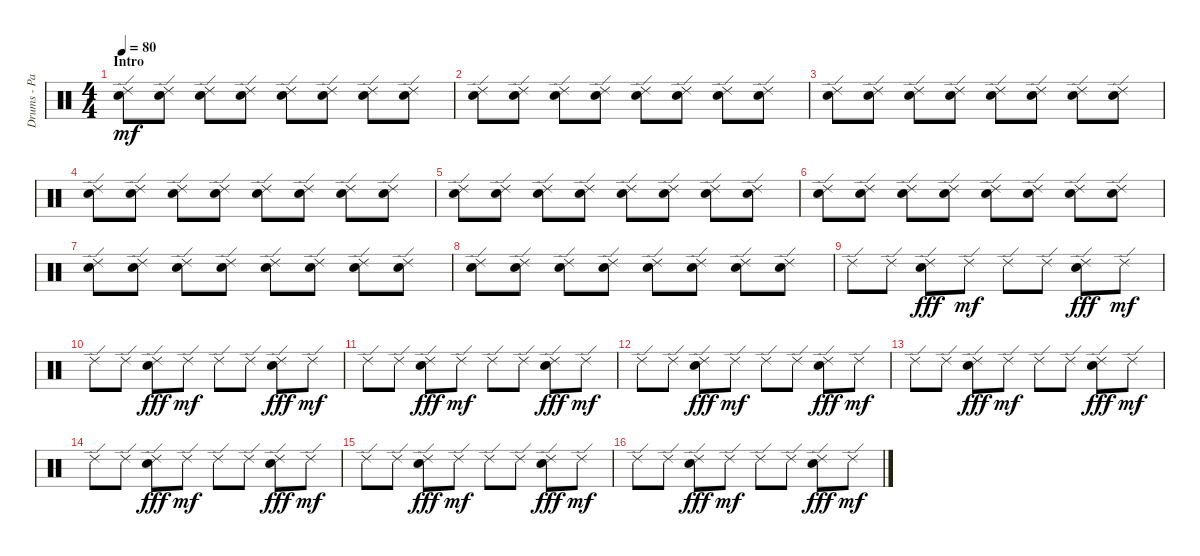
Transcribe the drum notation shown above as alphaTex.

\track ("Drums - Paice" "Drums - Pa") {instrument percussion}
\staff {score}
\articulation defaults
\ts (4 4)
\section ("" "Intro")
\tempo 80
\clef neutral
\ks c
("Ride (edge) 2" "Electric Snare (hit)").8{dy mf} ("Ride (edge) 2" "Electric Snare (hit)").8 ("Ride (edge) 2" "Electric Snare (hit)").8 ("Ride (edge) 2" "Electric Snare (hit)").8 ("Ride (edge) 2" "Electric Snare (hit)").8 ("Ride (edge) 2" "Electric Snare (hit)").8 ("Ride (edge) 2" "Electric Snare (hit)").8 ("Ride (edge) 2" "Electric Snare (hit)").8 |
("Ride (edge) 2" "Electric Snare (hit)").8 ("Ride (edge) 2" "Electric Snare (hit)").8 ("Ride (edge) 2" "Electric Snare (hit)").8 ("Ride (edge) 2" "Electric Snare (hit)").8 ("Ride (edge) 2" "Electric Snare (hit)").8 ("Ride (edge) 2" "Electric Snare (hit)").8 ("Ride (edge) 2" "Electric Snare (hit)").8 ("Ride (edge) 2" "Electric Snare (hit)").8 |
("Ride (edge) 2" "Electric Snare (hit)").8 ("Ride (edge) 2" "Electric Snare (hit)").8 ("Ride (edge) 2" "Electric Snare (hit)").8 ("Ride (edge) 2" "Electric Snare (hit)").8 ("Ride (edge) 2" "Electric Snare (hit)").8 ("Ride (edge) 2" "Electric Snare (hit)").8 ("Ride (edge) 2" "Electric Snare (hit)").8 ("Ride (edge) 2" "Electric Snare (hit)").8 |
("Ride (edge) 2" "Electric Snare (hit)").8 ("Ride (edge) 2" "Electric Snare (hit)").8 ("Ride (edge) 2" "Electric Snare (hit)").8 ("Ride (edge) 2" "Electric Snare (hit)").8 ("Ride (edge) 2" "Electric Snare (hit)").8 ("Ride (edge) 2" "Electric Snare (hit)").8 ("Ride (edge) 2" "Electric Snare (hit)").8 ("Ride (edge) 2" "Electric Snare (hit)").8 |
("Ride (edge) 2" "Electric Snare (hit)").8 ("Ride (edge) 2" "Electric Snare (hit)").8 ("Ride (edge) 2" "Electric Snare (hit)").8 ("Ride (edge) 2" "Electric Snare (hit)").8 ("Ride (edge) 2" "Electric Snare (hit)").8 ("Ride (edge) 2" "Electric Snare (hit)").8 ("Ride (edge) 2" "Electric Snare (hit)").8 ("Ride (edge) 2" "Electric Snare (hit)").8 |
("Ride (edge) 2" "Electric Snare (hit)").8 ("Ride (edge) 2" "Electric Snare (hit)").8 ("Ride (edge) 2" "Electric Snare (hit)").8 ("Ride (edge) 2" "Electric Snare (hit)").8 ("Ride (edge) 2" "Electric Snare (hit)").8 ("Ride (edge) 2" "Electric Snare (hit)").8 ("Ride (edge) 2" "Electric Snare (hit)").8 ("Ride (edge) 2" "Electric Snare (hit)").8 |
("Ride (edge) 2" "Electric Snare (hit)").8 ("Ride (edge) 2" "Electric Snare (hit)").8 ("Ride (edge) 2" "Electric Snare (hit)").8 ("Ride (edge) 2" "Electric Snare (hit)").8 ("Ride (edge) 2" "Electric Snare (hit)").8 ("Ride (edge) 2" "Electric Snare (hit)").8 ("Ride (edge) 2" "Electric Snare (hit)").8 ("Ride (edge) 2" "Electric Snare (hit)").8 |
("Ride (edge) 2" "Electric Snare (hit)").8 ("Ride (edge) 2" "Electric Snare (hit)").8 ("Ride (edge) 2" "Electric Snare (hit)").8 ("Ride (edge) 2" "Electric Snare (hit)").8 ("Ride (edge) 2" "Electric Snare (hit)").8 ("Ride (edge) 2" "Electric Snare (hit)").8 ("Ride (edge) 2" "Electric Snare (hit)").8 ("Ride (edge) 2" "Electric Snare (hit)").8 |
"Ride (edge) 2".8 "Ride (edge) 2".8 ("Ride (edge) 2" "Electric Snare (hit)").8{dy fff} "Ride (edge) 2".8{dy mf} "Ride (edge) 2".8 "Ride (edge) 2".8 ("Ride (edge) 2" "Electric Snare (hit)").8{dy fff} "Ride (edge) 2".8{dy mf} |
"Ride (edge) 2".8 "Ride (edge) 2".8 ("Ride (edge) 2" "Electric Snare (hit)").8{dy fff} "Ride (edge) 2".8{dy mf} "Ride (edge) 2".8 "Ride (edge) 2".8 ("Ride (edge) 2" "Electric Snare (hit)").8{dy fff} "Ride (edge) 2".8{dy mf} |
"Ride (edge) 2".8 "Ride (edge) 2".8 ("Ride (edge) 2" "Electric Snare (hit)").8{dy fff} "Ride (edge) 2".8{dy mf} "Ride (edge) 2".8 "Ride (edge) 2".8 ("Ride (edge) 2" "Electric Snare (hit)").8{dy fff} "Ride (edge) 2".8{dy mf} |
"Ride (edge) 2".8 "Ride (edge) 2".8 ("Ride (edge) 2" "Electric Snare (hit)").8{dy fff} "Ride (edge) 2".8{dy mf} "Ride (edge) 2".8 "Ride (edge) 2".8 ("Ride (edge) 2" "Electric Snare (hit)").8{dy fff} "Ride (edge) 2".8{dy mf} |
"Ride (edge) 2".8 "Ride (edge) 2".8 ("Ride (edge) 2" "Electric Snare (hit)").8{dy fff} "Ride (edge) 2".8{dy mf} "Ride (edge) 2".8 "Ride (edge) 2".8 ("Ride (edge) 2" "Electric Snare (hit)").8{dy fff} "Ride (edge) 2".8{dy mf} |
"Ride (edge) 2".8 "Ride (edge) 2".8 ("Ride (edge) 2" "Electric Snare (hit)").8{dy fff} "Ride (edge) 2".8{dy mf} "Ride (edge) 2".8 "Ride (edge) 2".8 ("Ride (edge) 2" "Electric Snare (hit)").8{dy fff} "Ride (edge) 2".8{dy mf} |
"Ride (edge) 2".8 "Ride (edge) 2".8 ("Ride (edge) 2" "Electric Snare (hit)").8{dy fff} "Ride (edge) 2".8{dy mf} "Ride (edge) 2".8 "Ride (edge) 2".8 ("Ride (edge) 2" "Electric Snare (hit)").8{dy fff} "Ride (edge) 2".8{dy mf} |
"Ride (edge) 2".8 "Ride (edge) 2".8 ("Ride (edge) 2" "Electric Snare (hit)").8{dy fff} "Ride (edge) 2".8{dy mf} "Ride (edge) 2".8 "Ride (edge) 2".8 ("Ride (edge) 2" "Electric Snare (hit)").8{dy fff} "Ride (edge) 2".8{dy mf}
